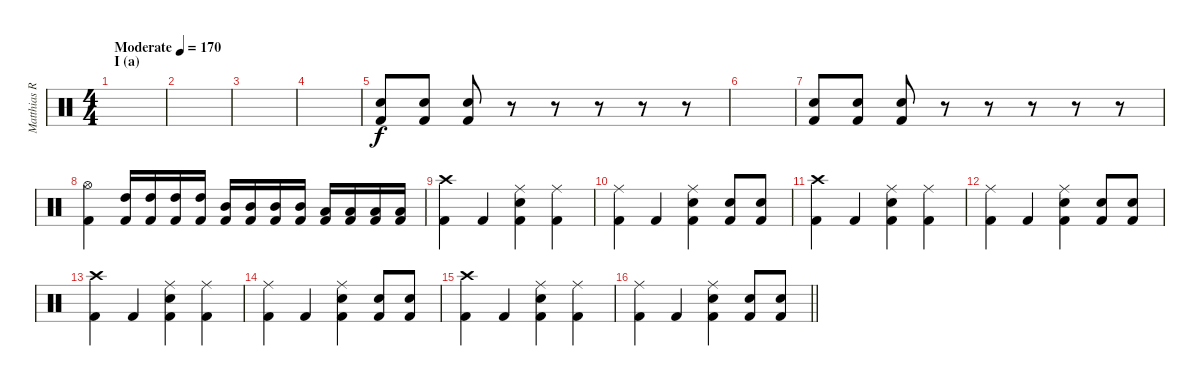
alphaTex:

\track ("Matthias R." "Matthias R") {instrument percussion}
\staff {score}
\articulation defaults
\ts (4 4)
\section ("" "I (a)")
\tempo (170 "Moderate")
\clef neutral
\ks c
|
|
|
|
("Kick (hit) 2" "Snare (hit) 2").8 ("Kick (hit) 2" "Snare (hit) 2").8 ("Kick (hit) 2" "Snare (hit) 2").8 r.8 r.8 r.8 r.8 r.8 |
|
("Kick (hit) 2" "Snare (hit) 2").8 ("Kick (hit) 2" "Snare (hit) 2").8 ("Kick (hit) 2" "Snare (hit) 2").8 r.8 r.8 r.8 r.8 r.8 |
("Kick (hit) 2" "Hi-Hat (open)").4 ("High Tom (hit)" "Kick (hit) 2").16 ("High Tom (hit)" "Kick (hit) 2").16 ("High Tom (hit)" "Kick (hit) 2").16 ("High Tom (hit)" "Kick (hit) 2").16 ("Mid Tom (hit)" "Kick (hit) 2").16 ("Mid Tom (hit)" "Kick (hit) 2").16 ("Mid Tom (hit)" "Kick (hit) 2").16 ("Mid Tom (hit)" "Kick (hit) 2").16 ("Low Tom (hit)" "Kick (hit) 2").16 ("Low Tom (hit)" "Kick (hit) 2").16 ("Low Tom (hit)" "Kick (hit) 2").16 ("Low Tom (hit)" "Kick (hit) 2").16 |
("Kick (hit) 2" "Crash high (hit)").4 "Kick (hit) 2".4 ("Kick (hit) 2" "Snare (hit) 2" "Ride (middle)").4 ("Kick (hit) 2" "Ride (middle)").4 |
("Kick (hit) 2" "Ride (middle)").4 "Kick (hit) 2".4 ("Kick (hit) 2" "Snare (hit) 2" "Ride (middle)").4 ("Kick (hit) 2" "Snare (hit) 2").8 ("Kick (hit) 2" "Snare (hit) 2").8 |
("Kick (hit) 2" "Crash high (hit)").4 "Kick (hit) 2".4 ("Kick (hit) 2" "Snare (hit) 2" "Ride (middle)").4 ("Kick (hit) 2" "Ride (middle)").4 |
("Kick (hit) 2" "Ride (middle)").4 "Kick (hit) 2".4 ("Kick (hit) 2" "Snare (hit) 2" "Ride (middle)").4 ("Kick (hit) 2" "Snare (hit) 2").8 ("Kick (hit) 2" "Snare (hit) 2").8 |
("Kick (hit) 2" "Crash high (hit)").4 "Kick (hit) 2".4 ("Kick (hit) 2" "Snare (hit) 2" "Ride (middle)").4 ("Kick (hit) 2" "Ride (middle)").4 |
("Kick (hit) 2" "Ride (middle)").4 "Kick (hit) 2".4 ("Kick (hit) 2" "Snare (hit) 2" "Ride (middle)").4 ("Kick (hit) 2" "Snare (hit) 2").8 ("Kick (hit) 2" "Snare (hit) 2").8 |
("Kick (hit) 2" "Crash high (hit)").4 "Kick (hit) 2".4 ("Kick (hit) 2" "Snare (hit) 2" "Ride (middle)").4 ("Kick (hit) 2" "Ride (middle)").4 |
\barLineRight lightlight
("Kick (hit) 2" "Ride (middle)").4 "Kick (hit) 2".4 ("Kick (hit) 2" "Snare (hit) 2" "Ride (middle)").4 ("Kick (hit) 2" "Snare (hit) 2").8 ("Kick (hit) 2" "Snare (hit) 2").8
